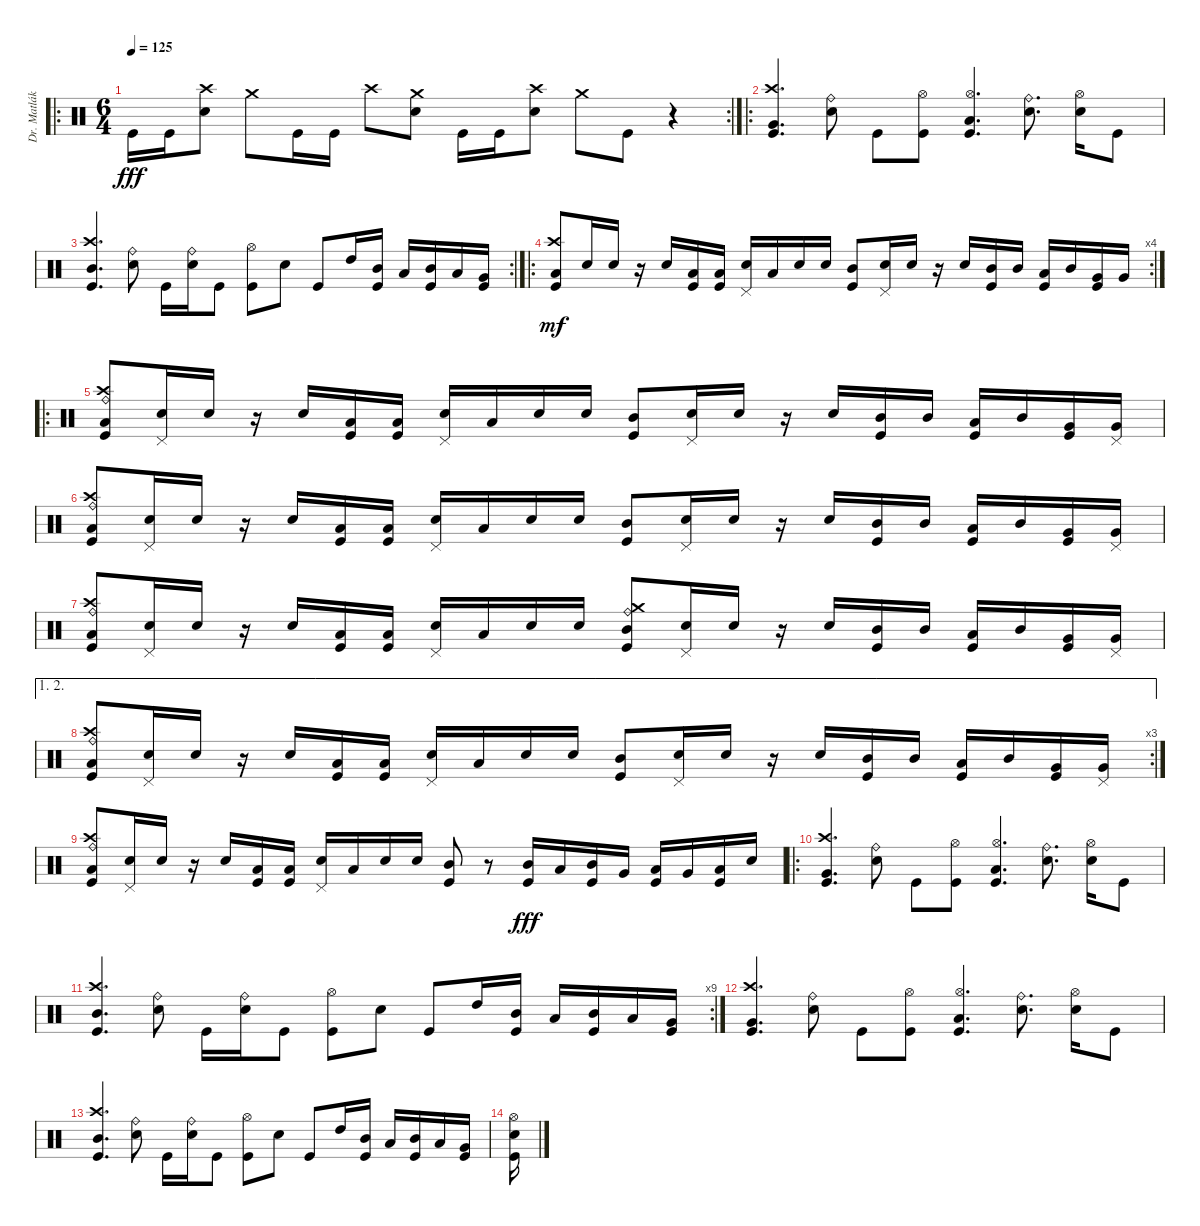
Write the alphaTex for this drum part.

\track ("Dr. Matlák" "Dr. Matlák") {instrument percussion}
\staff {score}
\articulation defaults
\ro
\rc 2
\ts (6 4)
\tempo 125
\clef neutral
\ks c "Kick (hit)".16{dy fff} "Kick (hit)".16
("Crash high (hit)" "Electric Snare (hit)").8 "Crash medium (hit)".8 "Kick (hit)".16 "Kick (hit)".16 "Crash high (hit)".8 ("Crash medium (hit)" "Electric Snare (hit)").8 "Kick (hit)".16 "Kick (hit)".16 ("Crash high (hit)" "Electric Snare (hit)").8 "Crash medium (hit)".8 "Kick (hit)".8 r.4 |
\ro
("Crash high (hit)" "Very Low Tom (hit)" "Kick (hit)").4{d} ("Ride (bell)" "Electric Snare (hit)").8 "Kick (hit)".8 ("Hi-Hat (open)" "Kick (hit)").8 ("Hi-Hat (open)" "Low Tom (hit)" "Kick (hit)").4{d} ("Ride (bell)" "Electric Snare (hit)").8{d} ("Hi-Hat (open)" "Electric Snare (hit)").16 "Kick (hit)".8 |
\rc 2
("Crash high (hit)" "Mid Tom (hit)" "Kick (hit)").4{d} ("Ride (bell)" "Electric Snare (hit)").8 "Kick (hit)".16 ("Ride (bell)" "Electric Snare (hit)").16 "Kick (hit)".8 ("Hi-Hat (open)" "Kick (hit)").8 "Electric Snare (hit)".8 "Kick (hit)".8 "High Tom (hit)".16 ("Mid Tom (hit)" "Kick (hit)").16 "Low Tom (hit)".16 ("Mid Tom (hit)" "Kick (hit)").16 "Low Tom (hit)".16 ("Very Low Tom (hit)" "Kick (hit)").16 |
\ro
\rc 4
("Crash high (hit)" "Low Tom (hit)" "Kick (hit)").8{dy mf} "Electric Snare (hit)".16 "Electric Snare (hit)".16 r.16 "Electric Snare (hit)".16 ("Low Tom (hit)" "Kick (hit)").16 ("Low Tom (hit)" "Kick (hit)").16 ("Pedal Hi-Hat (hit)" "Electric Snare (hit)").16 "Low Tom (hit)".16 "Electric Snare (hit)".16 "Electric Snare (hit)".16 ("Mid Tom (hit)" "Kick (hit)").8 ("Pedal Hi-Hat (hit)" "Electric Snare (hit)").16 "Electric Snare (hit)".16 r.16 "Electric Snare (hit)".16 ("Mid Tom (hit)" "Kick (hit)").16 "Mid Tom (hit)".16 ("Low Tom (hit)" "Kick (hit)").16 "Mid Tom (hit)".16 ("Very Low Tom (hit)" "Kick (hit)").16 "Very Low Tom (hit)".16 |
\ro
("Crash high (hit)" "Ride (bell)" "Low Tom (hit)" "Kick (hit)").8 ("Pedal Hi-Hat (hit)" "Electric Snare (hit)").16 "Electric Snare (hit)".16 r.16 "Electric Snare (hit)".16 ("Low Tom (hit)" "Kick (hit)").16 ("Low Tom (hit)" "Kick (hit)").16 ("Pedal Hi-Hat (hit)" "Electric Snare (hit)").16 "Low Tom (hit)".16 "Electric Snare (hit)".16 "Electric Snare (hit)".16 ("Mid Tom (hit)" "Kick (hit)").8 ("Pedal Hi-Hat (hit)" "Electric Snare (hit)").16 "Electric Snare (hit)".16 r.16 "Electric Snare (hit)".16 ("Mid Tom (hit)" "Kick (hit)").16 "Mid Tom (hit)".16 ("Low Tom (hit)" "Kick (hit)").16 "Mid Tom (hit)".16 ("Very Low Tom (hit)" "Kick (hit)").16 ("Pedal Hi-Hat (hit)" "Very Low Tom (hit)").16 |
("Crash high (hit)" "Ride (bell)" "Low Tom (hit)" "Kick (hit)").8 ("Pedal Hi-Hat (hit)" "Electric Snare (hit)").16 "Electric Snare (hit)".16 r.16 "Electric Snare (hit)".16 ("Low Tom (hit)" "Kick (hit)").16 ("Low Tom (hit)" "Kick (hit)").16 ("Pedal Hi-Hat (hit)" "Electric Snare (hit)").16 "Low Tom (hit)".16 "Electric Snare (hit)".16 "Electric Snare (hit)".16 ("Mid Tom (hit)" "Kick (hit)").8 ("Pedal Hi-Hat (hit)" "Electric Snare (hit)").16 "Electric Snare (hit)".16 r.16 "Electric Snare (hit)".16 ("Mid Tom (hit)" "Kick (hit)").16 "Mid Tom (hit)".16 ("Low Tom (hit)" "Kick (hit)").16 "Mid Tom (hit)".16 ("Very Low Tom (hit)" "Kick (hit)").16 ("Pedal Hi-Hat (hit)" "Very Low Tom (hit)").16 |
("Crash high (hit)" "Ride (bell)" "Low Tom (hit)" "Kick (hit)").8 ("Pedal Hi-Hat (hit)" "Electric Snare (hit)").16 "Electric Snare (hit)".16 r.16 "Electric Snare (hit)".16 ("Low Tom (hit)" "Kick (hit)").16 ("Low Tom (hit)" "Kick (hit)").16 ("Pedal Hi-Hat (hit)" "Electric Snare (hit)").16 "Low Tom (hit)".16 "Electric Snare (hit)".16 "Electric Snare (hit)".16 ("Crash medium (hit)" "Ride (bell)" "Mid Tom (hit)" "Kick (hit)").8 ("Pedal Hi-Hat (hit)" "Electric Snare (hit)").16 "Electric Snare (hit)".16 r.16 "Electric Snare (hit)".16 ("Mid Tom (hit)" "Kick (hit)").16 "Mid Tom (hit)".16 ("Low Tom (hit)" "Kick (hit)").16 "Mid Tom (hit)".16 ("Very Low Tom (hit)" "Kick (hit)").16 ("Pedal Hi-Hat (hit)" "Very Low Tom (hit)").16 |
\ae (1 2)
\rc 3
("Crash high (hit)" "Ride (bell)" "Low Tom (hit)" "Kick (hit)").8 ("Pedal Hi-Hat (hit)" "Electric Snare (hit)").16 "Electric Snare (hit)".16 r.16 "Electric Snare (hit)".16 ("Low Tom (hit)" "Kick (hit)").16 ("Low Tom (hit)" "Kick (hit)").16 ("Pedal Hi-Hat (hit)" "Electric Snare (hit)").16 "Low Tom (hit)".16 "Electric Snare (hit)".16 "Electric Snare (hit)".16 ("Mid Tom (hit)" "Kick (hit)").8 ("Pedal Hi-Hat (hit)" "Electric Snare (hit)").16 "Electric Snare (hit)".16 r.16 "Electric Snare (hit)".16 ("Mid Tom (hit)" "Kick (hit)").16 "Mid Tom (hit)".16 ("Low Tom (hit)" "Kick (hit)").16 "Mid Tom (hit)".16 ("Very Low Tom (hit)" "Kick (hit)").16 ("Pedal Hi-Hat (hit)" "Very Low Tom (hit)").16 |
("Crash high (hit)" "Ride (bell)" "Low Tom (hit)" "Kick (hit)").8 ("Pedal Hi-Hat (hit)" "Electric Snare (hit)").16 "Electric Snare (hit)".16 r.16 "Electric Snare (hit)".16 ("Low Tom (hit)" "Kick (hit)").16 ("Low Tom (hit)" "Kick (hit)").16 ("Pedal Hi-Hat (hit)" "Electric Snare (hit)").16 "Low Tom (hit)".16 "Electric Snare (hit)".16 "Electric Snare (hit)".16 ("Mid Tom (hit)" "Kick (hit)").8 r.8 ("Mid Tom (hit)" "Kick (hit)").16{dy fff} "Low Tom (hit)".16 ("Mid Tom (hit)" "Kick (hit)").16 "Very Low Tom (hit)".16 ("Low Tom (hit)" "Kick (hit)").16 "Very Low Tom (hit)".16 ("Low Floor Tom (hit)" "Kick (hit)").16 "Electric Snare (hit)".16 |
\ro
("Crash high (hit)" "Very Low Tom (hit)" "Kick (hit)").4{d} ("Ride (bell)" "Electric Snare (hit)").8 "Kick (hit)".8 ("Hi-Hat (open)" "Kick (hit)").8 ("Hi-Hat (open)" "Low Tom (hit)" "Kick (hit)").4{d} ("Ride (bell)" "Electric Snare (hit)").8{d} ("Hi-Hat (open)" "Electric Snare (hit)").16 "Kick (hit)".8 |
\rc 9
("Crash high (hit)" "Mid Tom (hit)" "Kick (hit)").4{d} ("Ride (bell)" "Electric Snare (hit)").8 "Kick (hit)".16 ("Ride (bell)" "Electric Snare (hit)").16 "Kick (hit)".8 ("Hi-Hat (open)" "Kick (hit)").8 "Electric Snare (hit)".8 "Kick (hit)".8 "High Tom (hit)".16 ("Mid Tom (hit)" "Kick (hit)").16 "Low Tom (hit)".16 ("Mid Tom (hit)" "Kick (hit)").16 "Low Tom (hit)".16 ("Very Low Tom (hit)" "Kick (hit)").16 |
("Crash high (hit)" "Very Low Tom (hit)" "Kick (hit)").4{d} ("Ride (bell)" "Electric Snare (hit)").8 "Kick (hit)".8 ("Hi-Hat (open)" "Kick (hit)").8 ("Hi-Hat (open)" "Low Tom (hit)" "Kick (hit)").4{d} ("Ride (bell)" "Electric Snare (hit)").8{d} ("Hi-Hat (open)" "Electric Snare (hit)").16 "Kick (hit)".8 |
("Crash high (hit)" "Mid Tom (hit)" "Kick (hit)").4{d} ("Ride (bell)" "Electric Snare (hit)").8 "Kick (hit)".16 ("Ride (bell)" "Electric Snare (hit)").16 "Kick (hit)".8 ("Hi-Hat (open)" "Kick (hit)").8 "Electric Snare (hit)".8 "Kick (hit)".8 "High Tom (hit)".16 ("Mid Tom (hit)" "Kick (hit)").16 "Low Tom (hit)".16 ("Mid Tom (hit)" "Kick (hit)").16 "Low Tom (hit)".16 ("Very Low Tom (hit)" "Kick (hit)").16 |
("Hi-Hat (open)" "Electric Snare (hit)" "Kick (hit)").16
